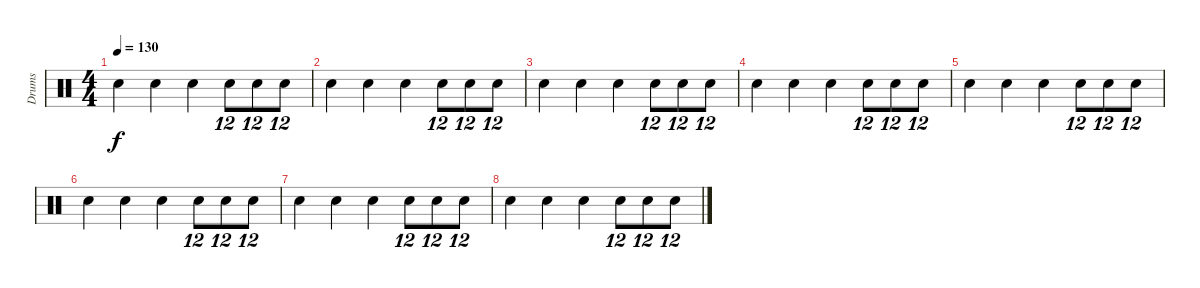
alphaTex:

\track ("Drums " "Drums ") {instrument percussion}
\staff {score}
\articulation defaults
\ts (4 4)
\tempo 130
\clef neutral
\ks c "Electric Snare (hit)".4{dy f} "Electric Snare (hit)".4 "Electric Snare (hit)".4 "Electric Snare (hit)".8{tu (12 8)} "Electric Snare (hit)".8{tu (12 8)} "Electric Snare (hit)".8{tu (12 8)}
|
"Electric Snare (hit)".4 "Electric Snare (hit)".4 "Electric Snare (hit)".4 "Electric Snare (hit)".8{tu (12 8)} "Electric Snare (hit)".8{tu (12 8)} "Electric Snare (hit)".8{tu (12 8)} |
"Electric Snare (hit)".4 "Electric Snare (hit)".4 "Electric Snare (hit)".4 "Electric Snare (hit)".8{tu (12 8)} "Electric Snare (hit)".8{tu (12 8)} "Electric Snare (hit)".8{tu (12 8)} |
"Electric Snare (hit)".4 "Electric Snare (hit)".4 "Electric Snare (hit)".4 "Electric Snare (hit)".8{tu (12 8)} "Electric Snare (hit)".8{tu (12 8)} "Electric Snare (hit)".8{tu (12 8)} |
"Electric Snare (hit)".4 "Electric Snare (hit)".4 "Electric Snare (hit)".4 "Electric Snare (hit)".8{tu (12 8)} "Electric Snare (hit)".8{tu (12 8)} "Electric Snare (hit)".8{tu (12 8)} |
"Electric Snare (hit)".4 "Electric Snare (hit)".4 "Electric Snare (hit)".4 "Electric Snare (hit)".8{tu (12 8)} "Electric Snare (hit)".8{tu (12 8)} "Electric Snare (hit)".8{tu (12 8)} |
"Electric Snare (hit)".4 "Electric Snare (hit)".4 "Electric Snare (hit)".4 "Electric Snare (hit)".8{tu (12 8)} "Electric Snare (hit)".8{tu (12 8)} "Electric Snare (hit)".8{tu (12 8)} |
"Electric Snare (hit)".4 "Electric Snare (hit)".4 "Electric Snare (hit)".4 "Electric Snare (hit)".8{tu (12 8)} "Electric Snare (hit)".8{tu (12 8)} "Electric Snare (hit)".8{tu (12 8)}
